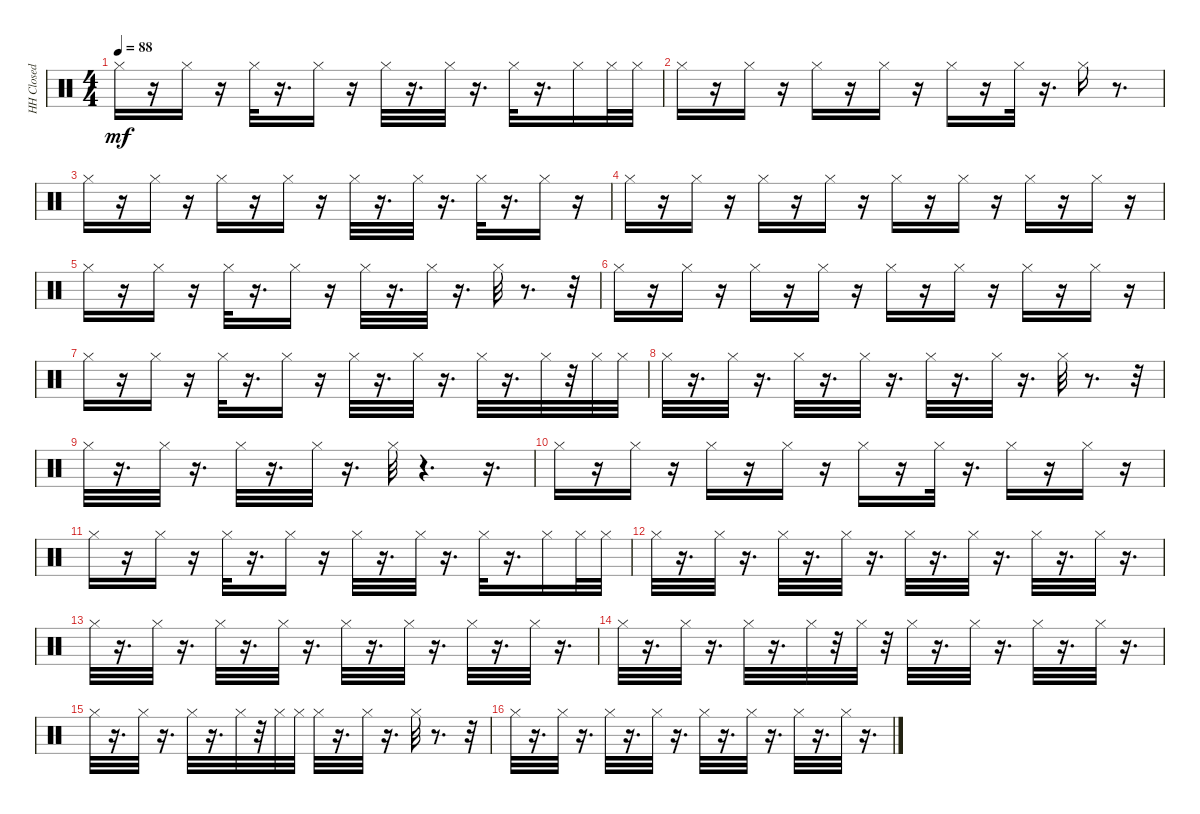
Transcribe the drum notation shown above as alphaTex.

\track ("HH Closed" "HH Closed") {instrument percussion}
\staff {score}
\articulation defaults
\ts (4 4)
\tempo 88
\clef neutral
\ks c "Hi-Hat (closed)".16{dy mf}
r.16 "Hi-Hat (closed)".16 r.16 "Hi-Hat (closed)".32 r.16{d} "Hi-Hat (closed)".16 r.16 "Hi-Hat (closed)".32 r.16{d} "Hi-Hat (closed)".32 r.16{d} "Hi-Hat (closed)".32 r.16{d} "Hi-Hat (closed)".16 "Hi-Hat (closed)".32 "Hi-Hat (closed)".32 |
"Hi-Hat (closed)".16 r.16 "Hi-Hat (closed)".16 r.16 "Hi-Hat (closed)".16 r.16 "Hi-Hat (closed)".16 r.16 "Hi-Hat (closed)".16 r.16 "Hi-Hat (closed)".32 r.16{d} "Hi-Hat (closed)".16 r.8{d} |
"Hi-Hat (closed)".16 r.16 "Hi-Hat (closed)".16 r.16 "Hi-Hat (closed)".16 r.16 "Hi-Hat (closed)".16 r.16 "Hi-Hat (closed)".32 r.16{d} "Hi-Hat (closed)".32 r.16{d} "Hi-Hat (closed)".32 r.16{d} "Hi-Hat (closed)".16 r.16 |
"Hi-Hat (closed)".16 r.16 "Hi-Hat (closed)".16 r.16 "Hi-Hat (closed)".16 r.16 "Hi-Hat (closed)".16 r.16 "Hi-Hat (closed)".16 r.16 "Hi-Hat (closed)".16 r.16 "Hi-Hat (closed)".16 r.16 "Hi-Hat (closed)".16 r.16 |
"Hi-Hat (closed)".16 r.16 "Hi-Hat (closed)".16 r.16 "Hi-Hat (closed)".32 r.16{d} "Hi-Hat (closed)".16 r.16 "Hi-Hat (closed)".32 r.16{d} "Hi-Hat (closed)".32 r.16{d} "Hi-Hat (closed)".32 r.8{d} r.32 |
"Hi-Hat (closed)".16 r.16 "Hi-Hat (closed)".16 r.16 "Hi-Hat (closed)".16 r.16 "Hi-Hat (closed)".16 r.16 "Hi-Hat (closed)".16 r.16 "Hi-Hat (closed)".16 r.16 "Hi-Hat (closed)".16 r.16 "Hi-Hat (closed)".16 r.16 |
"Hi-Hat (closed)".16 r.16 "Hi-Hat (closed)".16 r.16 "Hi-Hat (closed)".32 r.16{d} "Hi-Hat (closed)".16 r.16 "Hi-Hat (closed)".32 r.16{d} "Hi-Hat (closed)".32 r.16{d} "Hi-Hat (closed)".32 r.16{d} "Hi-Hat (closed)".32 r.32 "Hi-Hat (closed)".32 "Hi-Hat (closed)".32 |
"Hi-Hat (closed)".32 r.16{d} "Hi-Hat (closed)".32 r.16{d} "Hi-Hat (closed)".32 r.16{d} "Hi-Hat (closed)".32 r.16{d} "Hi-Hat (closed)".32 r.16{d} "Hi-Hat (closed)".32 r.16{d} "Hi-Hat (closed)".32 r.8{d} r.32 |
"Hi-Hat (closed)".32 r.16{d} "Hi-Hat (closed)".32 r.16{d} "Hi-Hat (closed)".32 r.16{d} "Hi-Hat (closed)".32 r.16{d} "Hi-Hat (closed)".32 r.4{d} r.16{d} |
"Hi-Hat (closed)".16 r.16 "Hi-Hat (closed)".16 r.16 "Hi-Hat (closed)".16 r.16 "Hi-Hat (closed)".16 r.16 "Hi-Hat (closed)".16 r.16 "Hi-Hat (closed)".32 r.16{d} "Hi-Hat (closed)".16 r.16 "Hi-Hat (closed)".16 r.16 |
"Hi-Hat (closed)".16 r.16 "Hi-Hat (closed)".16 r.16 "Hi-Hat (closed)".32 r.16{d} "Hi-Hat (closed)".16 r.16 "Hi-Hat (closed)".32 r.16{d} "Hi-Hat (closed)".32 r.16{d} "Hi-Hat (closed)".32 r.16{d} "Hi-Hat (closed)".16 "Hi-Hat (closed)".32 "Hi-Hat (closed)".32 |
"Hi-Hat (closed)".32 r.16{d} "Hi-Hat (closed)".32 r.16{d} "Hi-Hat (closed)".32 r.16{d} "Hi-Hat (closed)".32 r.16{d} "Hi-Hat (closed)".32 r.16{d} "Hi-Hat (closed)".32 r.16{d} "Hi-Hat (closed)".32 r.16{d} "Hi-Hat (closed)".32 r.16{d} |
"Hi-Hat (closed)".32 r.16{d} "Hi-Hat (closed)".32 r.16{d} "Hi-Hat (closed)".32 r.16{d} "Hi-Hat (closed)".32 r.16{d} "Hi-Hat (closed)".32 r.16{d} "Hi-Hat (closed)".32 r.16{d} "Hi-Hat (closed)".32 r.16{d} "Hi-Hat (closed)".32 r.16{d} |
"Hi-Hat (closed)".32 r.16{d} "Hi-Hat (closed)".32 r.16{d} "Hi-Hat (closed)".32 r.16{d} "Hi-Hat (closed)".32 r.32 "Hi-Hat (closed)".32 r.32 "Hi-Hat (closed)".32 r.16{d} "Hi-Hat (closed)".32 r.16{d} "Hi-Hat (closed)".32 r.16{d} "Hi-Hat (closed)".32 r.16{d} |
"Hi-Hat (closed)".32 r.16{d} "Hi-Hat (closed)".32 r.16{d} "Hi-Hat (closed)".32 r.16{d} "Hi-Hat (closed)".32 r.32 "Hi-Hat (closed)".32 "Hi-Hat (closed)".32 "Hi-Hat (closed)".32 r.16{d} "Hi-Hat (closed)".32 r.16{d} "Hi-Hat (closed)".32 r.8{d} r.32 |
"Hi-Hat (closed)".32 r.16{d} "Hi-Hat (closed)".32 r.16{d} "Hi-Hat (closed)".32 r.16{d} "Hi-Hat (closed)".32 r.16{d} "Hi-Hat (closed)".32 r.16{d} "Hi-Hat (closed)".32 r.16{d} "Hi-Hat (closed)".32 r.16{d} "Hi-Hat (closed)".32 r.16{d}
